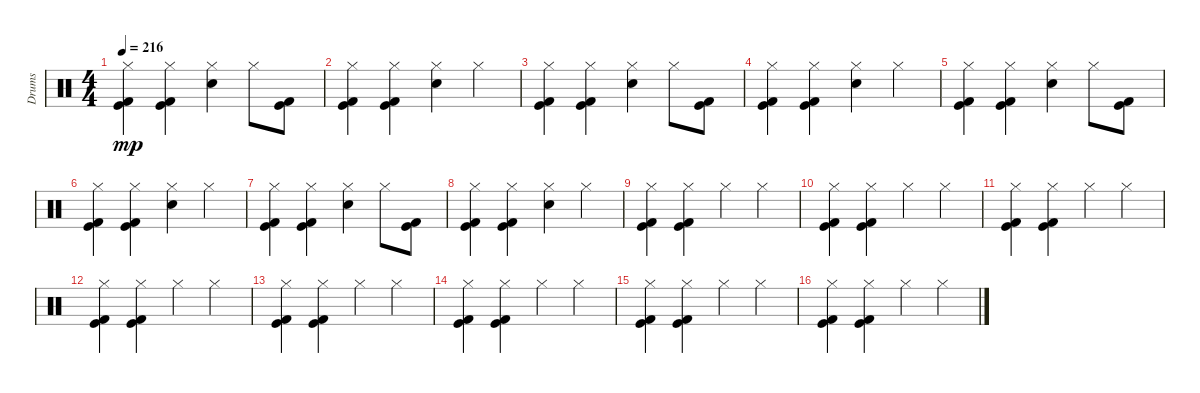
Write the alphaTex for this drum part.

\track ("Drums" "Drums") {instrument percussion}
\staff {score}
\articulation defaults
\ts (4 4)
\tempo 216
\clef neutral
\ks c
("Hi-Hat (closed)" "Kick (hit)" "Kick (hit) 2").4{dy mp} ("Hi-Hat (closed)" "Kick (hit)" "Kick (hit) 2").4 ("Hi-Hat (closed)" "Snare (hit) 2").4 "Hi-Hat (closed)".8 ("Kick (hit)" "Kick (hit) 2").8 |
("Hi-Hat (closed)" "Kick (hit)" "Kick (hit) 2").4 ("Hi-Hat (closed)" "Kick (hit)" "Kick (hit) 2").4 ("Hi-Hat (closed)" "Snare (hit) 2").4 "Hi-Hat (closed)".4 |
("Hi-Hat (closed)" "Kick (hit)" "Kick (hit) 2").4 ("Hi-Hat (closed)" "Kick (hit)" "Kick (hit) 2").4 ("Hi-Hat (closed)" "Snare (hit) 2").4 "Hi-Hat (closed)".8 ("Kick (hit)" "Kick (hit) 2").8 |
("Hi-Hat (closed)" "Kick (hit)" "Kick (hit) 2").4 ("Hi-Hat (closed)" "Kick (hit)" "Kick (hit) 2").4 ("Hi-Hat (closed)" "Snare (hit) 2").4 "Hi-Hat (closed)".4 |
("Hi-Hat (closed)" "Kick (hit)" "Kick (hit) 2").4 ("Hi-Hat (closed)" "Kick (hit)" "Kick (hit) 2").4 ("Hi-Hat (closed)" "Snare (hit) 2").4 "Hi-Hat (closed)".8 ("Kick (hit)" "Kick (hit) 2").8 |
("Hi-Hat (closed)" "Kick (hit)" "Kick (hit) 2").4 ("Hi-Hat (closed)" "Kick (hit)" "Kick (hit) 2").4 ("Hi-Hat (closed)" "Snare (hit) 2").4 "Hi-Hat (closed)".4 |
("Hi-Hat (closed)" "Kick (hit)" "Kick (hit) 2").4 ("Hi-Hat (closed)" "Kick (hit)" "Kick (hit) 2").4 ("Hi-Hat (closed)" "Snare (hit) 2").4 "Hi-Hat (closed)".8 ("Kick (hit)" "Kick (hit) 2").8 |
("Hi-Hat (closed)" "Kick (hit)" "Kick (hit) 2").4 ("Hi-Hat (closed)" "Kick (hit)" "Kick (hit) 2").4 ("Hi-Hat (closed)" "Snare (hit) 2").4 "Hi-Hat (closed)".4 |
("Hi-Hat (closed)" "Kick (hit) 2" "Kick (hit)").4 ("Hi-Hat (closed)" "Kick (hit) 2" "Kick (hit)").4 "Hi-Hat (closed)".4 "Hi-Hat (closed)".4 |
("Hi-Hat (closed)" "Kick (hit) 2" "Kick (hit)").4 ("Hi-Hat (closed)" "Kick (hit) 2" "Kick (hit)").4 "Hi-Hat (closed)".4 "Hi-Hat (closed)".4 |
("Hi-Hat (closed)" "Kick (hit) 2" "Kick (hit)").4 ("Hi-Hat (closed)" "Kick (hit) 2" "Kick (hit)").4 "Hi-Hat (closed)".4 "Hi-Hat (closed)".4 |
("Hi-Hat (closed)" "Kick (hit) 2" "Kick (hit)").4 ("Hi-Hat (closed)" "Kick (hit) 2" "Kick (hit)").4 "Hi-Hat (closed)".4 "Hi-Hat (closed)".4 |
("Hi-Hat (closed)" "Kick (hit) 2" "Kick (hit)").4 ("Hi-Hat (closed)" "Kick (hit) 2" "Kick (hit)").4 "Hi-Hat (closed)".4 "Hi-Hat (closed)".4 |
("Hi-Hat (closed)" "Kick (hit) 2" "Kick (hit)").4 ("Hi-Hat (closed)" "Kick (hit) 2" "Kick (hit)").4 "Hi-Hat (closed)".4 "Hi-Hat (closed)".4 |
("Hi-Hat (closed)" "Kick (hit) 2" "Kick (hit)").4 ("Hi-Hat (closed)" "Kick (hit) 2" "Kick (hit)").4 "Hi-Hat (closed)".4 "Hi-Hat (closed)".4 |
("Hi-Hat (closed)" "Kick (hit) 2" "Kick (hit)").4 ("Hi-Hat (closed)" "Kick (hit) 2" "Kick (hit)").4 "Hi-Hat (closed)".4 "Hi-Hat (closed)".4
